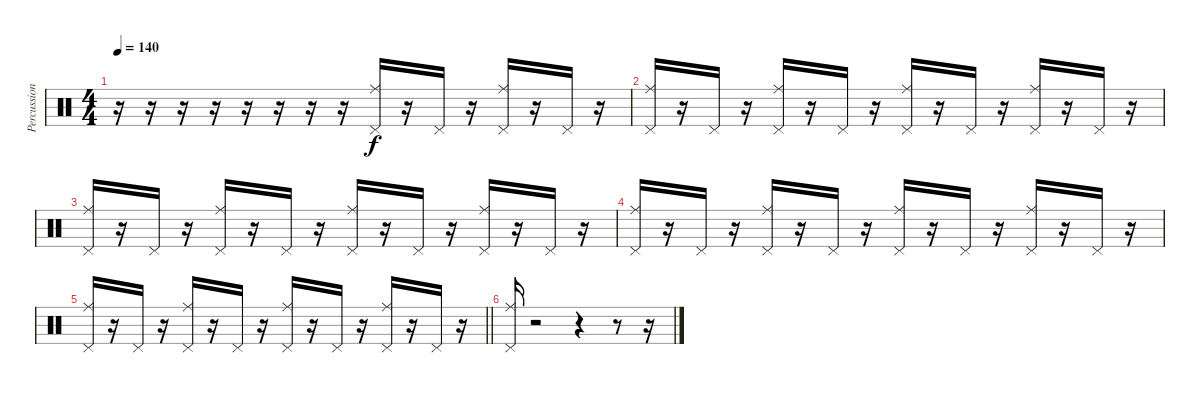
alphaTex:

\track ("Percussion" "Percussion") {instrument percussion}
\staff {score}
\articulation defaults
\ts (4 4)
\tempo 140
\clef neutral
\ks c
r.16{dy f} r.16 r.16 r.16 r.16 r.16 r.16 r.16 ("Ride (middle)" "Pedal Hi-Hat (hit)").16 r.16 "Pedal Hi-Hat (hit)".16 r.16 ("Ride (middle)" "Pedal Hi-Hat (hit)").16 r.16 "Pedal Hi-Hat (hit)".16 r.16 |
("Ride (middle)" "Pedal Hi-Hat (hit)").16 r.16 "Pedal Hi-Hat (hit)".16 r.16 ("Ride (middle)" "Pedal Hi-Hat (hit)").16 r.16 "Pedal Hi-Hat (hit)".16 r.16 ("Ride (middle)" "Pedal Hi-Hat (hit)").16 r.16 "Pedal Hi-Hat (hit)".16 r.16 ("Ride (middle)" "Pedal Hi-Hat (hit)").16 r.16 "Pedal Hi-Hat (hit)".16 r.16 |
("Ride (middle)" "Pedal Hi-Hat (hit)").16 r.16 "Pedal Hi-Hat (hit)".16 r.16 ("Ride (middle)" "Pedal Hi-Hat (hit)").16 r.16 "Pedal Hi-Hat (hit)".16 r.16 ("Ride (middle)" "Pedal Hi-Hat (hit)").16 r.16 "Pedal Hi-Hat (hit)".16 r.16 ("Ride (middle)" "Pedal Hi-Hat (hit)").16 r.16 "Pedal Hi-Hat (hit)".16 r.16 |
("Ride (middle)" "Pedal Hi-Hat (hit)").16 r.16 "Pedal Hi-Hat (hit)".16 r.16 ("Ride (middle)" "Pedal Hi-Hat (hit)").16 r.16 "Pedal Hi-Hat (hit)".16 r.16 ("Ride (middle)" "Pedal Hi-Hat (hit)").16 r.16 "Pedal Hi-Hat (hit)".16 r.16 ("Ride (middle)" "Pedal Hi-Hat (hit)").16 r.16 "Pedal Hi-Hat (hit)".16 r.16 |
\barLineRight lightlight
("Ride (middle)" "Pedal Hi-Hat (hit)").16 r.16 "Pedal Hi-Hat (hit)".16 r.16 ("Ride (middle)" "Pedal Hi-Hat (hit)").16 r.16 "Pedal Hi-Hat (hit)".16 r.16 ("Ride (middle)" "Pedal Hi-Hat (hit)").16 r.16 "Pedal Hi-Hat (hit)".16 r.16 ("Ride (middle)" "Pedal Hi-Hat (hit)").16 r.16 "Pedal Hi-Hat (hit)".16 r.16 |
("Ride (middle)" "Pedal Hi-Hat (hit)").16 r.2 r.4 r.8 r.16
